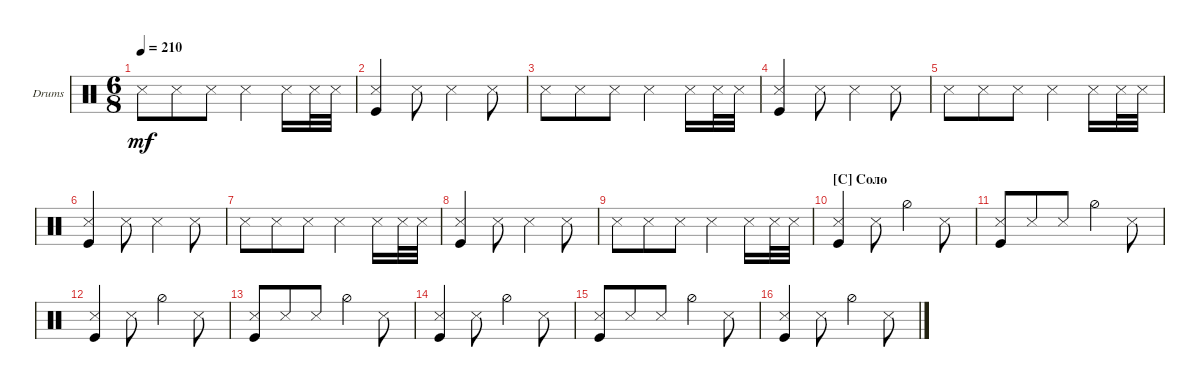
\defaultSystemsLayout 4
\bracketExtendMode nobrackets
\firstSystemTrackNameOrientation horizontal
\otherSystemsTrackNameOrientation horizontal
\track ("Drumkit" "Drums") {instrument percussion}
\staff {score}
\articulation defaults
\ts (6 8)
\tempo 210
\clef neutral
\scale
0.333333
\ks c "Snare (side stick) 3".8{dy mf} "Snare (side stick) 3".8 "Snare (side stick) 3".8 "Snare (side stick) 3".4 "Snare (side stick) 3".16 "Snare (side stick) 3".32 "Snare (side stick) 3".32
|
\scale
0.333333 ("Kick (hit)" "Snare (side stick) 3").4 "Snare (side stick) 3".8 "Snare (side stick) 3".4 "Snare (side stick) 3".8 |
\scale
0.333333 "Snare (side stick) 3".8 "Snare (side stick) 3".8 "Snare (side stick) 3".8 "Snare (side stick) 3".4 "Snare (side stick) 3".16 "Snare (side stick) 3".32 "Snare (side stick) 3".32 |
\scale
0.333333 ("Kick (hit)" "Snare (side stick) 3").4 "Snare (side stick) 3".8 "Snare (side stick) 3".4 "Snare (side stick) 3".8 |
\scale
0.333333 "Snare (side stick) 3".8 "Snare (side stick) 3".8 "Snare (side stick) 3".8 "Snare (side stick) 3".4 "Snare (side stick) 3".16 "Snare (side stick) 3".32 "Snare (side stick) 3".32 |
\scale
0.333333 ("Kick (hit)" "Snare (side stick) 3").4 "Snare (side stick) 3".8 "Snare (side stick) 3".4 "Snare (side stick) 3".8 |
\scale
0.333333 "Snare (side stick) 3".8 "Snare (side stick) 3".8 "Snare (side stick) 3".8 "Snare (side stick) 3".4 "Snare (side stick) 3".16 "Snare (side stick) 3".32 "Snare (side stick) 3".32 |
\scale
0.333333 ("Kick (hit)" "Snare (side stick) 3").4 "Snare (side stick) 3".8 "Snare (side stick) 3".4 "Snare (side stick) 3".8 |
\scale
0.333333 "Snare (side stick) 3".8 "Snare (side stick) 3".8 "Snare (side stick) 3".8 "Snare (side stick) 3".4 "Snare (side stick) 3".16 "Snare (side stick) 3".32 "Snare (side stick) 3".32 |
\section ("C" "Соло")
\scale
0.333333 ("Kick (hit)" "Snare (side stick) 3").4 "Snare (side stick) 3".8 "Hi-Hat (half)".4 "Snare (side stick) 3".8 |
\scale
0.333333 ("Kick (hit)" "Snare (side stick) 3").8 "Snare (side stick) 3".8 "Snare (side stick) 3".8 "Hi-Hat (half)".4 "Snare (side stick) 3".8 |
\scale
0.333333 ("Kick (hit)" "Snare (side stick) 3").4 "Snare (side stick) 3".8 "Hi-Hat (half)".4 "Snare (side stick) 3".8 |
\scale
0.333333 ("Kick (hit)" "Snare (side stick) 3").8 "Snare (side stick) 3".8 "Snare (side stick) 3".8 "Hi-Hat (half)".4 "Snare (side stick) 3".8 |
\scale
0.333333 ("Kick (hit)" "Snare (side stick) 3").4 "Snare (side stick) 3".8 "Hi-Hat (half)".4 "Snare (side stick) 3".8 |
\scale
0.333333 ("Kick (hit)" "Snare (side stick) 3").8 "Snare (side stick) 3".8 "Snare (side stick) 3".8 "Hi-Hat (half)".4 "Snare (side stick) 3".8 |
\scale
0.333333 ("Kick (hit)" "Snare (side stick) 3").4 "Snare (side stick) 3".8 "Hi-Hat (half)".4 "Snare (side stick) 3".8
